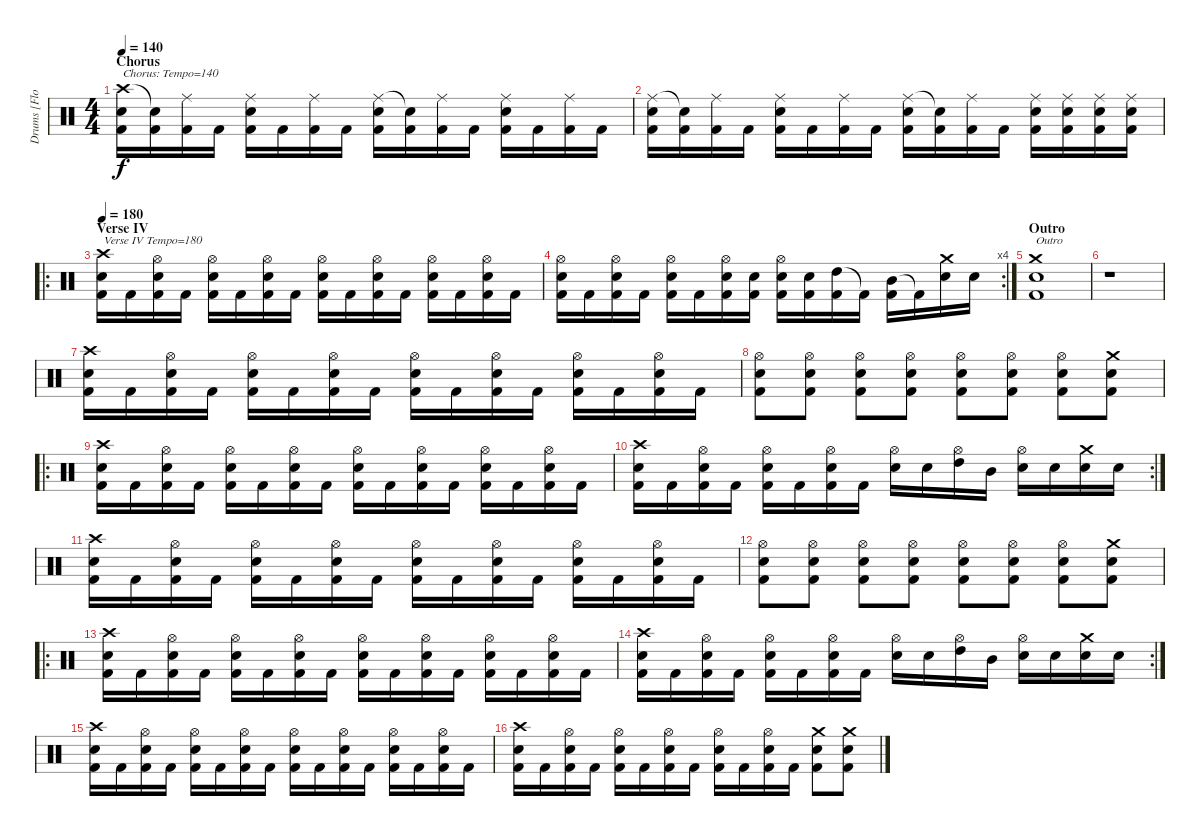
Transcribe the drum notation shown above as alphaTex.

\track ("Drums [Flo Mournier]" "Drums [Flo") {instrument percussion}
\staff {score}
\articulation defaults
\ts (4 4)
\section ("" "Chorus")
\tempo 140
\clef neutral
\ks c
("Crash high (hit)" "Electric Snare (hit)" "Kick (hit) 2").16{txt "Chorus: Tempo=140" dy f} ("Snare (hit)"{t} "Kick (hit) 2").16 ("Ride (middle)" "Kick (hit) 2").16 "Kick (hit) 2".16 ("Ride (middle)" "Electric Snare (hit)" "Kick (hit) 2").16 "Kick (hit) 2".16 ("Ride (middle)" "Kick (hit) 2").16 "Kick (hit) 2".16 ("Ride (middle)" "Electric Snare (hit)" "Kick (hit) 2").16 ("Snare (hit)"{t} "Kick (hit) 2").16 ("Ride (middle)" "Kick (hit) 2").16 "Kick (hit) 2".16 ("Ride (middle)" "Electric Snare (hit)" "Kick (hit) 2").16 "Kick (hit) 2".16 ("Ride (middle)" "Kick (hit) 2").16 "Kick (hit) 2".16 |
("Ride (middle)" "Electric Snare (hit)" "Kick (hit) 2").16 ("Snare (hit)"{t} "Kick (hit) 2").16 ("Ride (middle)" "Kick (hit) 2").16 "Kick (hit) 2".16 ("Ride (middle)" "Electric Snare (hit)" "Kick (hit) 2").16 "Kick (hit) 2".16 ("Ride (middle)" "Kick (hit) 2").16 "Kick (hit) 2".16 ("Ride (middle)" "Electric Snare (hit)" "Kick (hit) 2").16 ("Snare (hit)"{t} "Kick (hit) 2").16 ("Ride (middle)" "Kick (hit) 2").16 "Kick (hit) 2".16 ("Ride (middle)" "Electric Snare (hit)" "Kick (hit) 2").16 ("Ride (middle)" "Electric Snare (hit)" "Kick (hit) 2").16 ("Ride (middle)" "Electric Snare (hit)" "Kick (hit) 2").16 ("Ride (middle)" "Electric Snare (hit)" "Kick (hit) 2").16 |
\ro
\section ("" "Verse IV")
\tempo 180
("Crash high (hit)" "Electric Snare (hit)" "Kick (hit) 2").16{txt "Verse IV Tempo=180"} "Kick (hit) 2".16 ("Hi-Hat (open)" "Electric Snare (hit)" "Kick (hit) 2").16 "Kick (hit) 2".16 ("Hi-Hat (open)" "Electric Snare (hit)" "Kick (hit) 2").16 "Kick (hit) 2".16 ("Hi-Hat (open)" "Electric Snare (hit)" "Kick (hit) 2").16 "Kick (hit) 2".16 ("Hi-Hat (open)" "Electric Snare (hit)" "Kick (hit) 2").16 "Kick (hit) 2".16 ("Hi-Hat (open)" "Electric Snare (hit)" "Kick (hit) 2").16 "Kick (hit) 2".16 ("Hi-Hat (open)" "Electric Snare (hit)" "Kick (hit) 2").16 "Kick (hit) 2".16 ("Hi-Hat (open)" "Electric Snare (hit)" "Kick (hit) 2").16 "Kick (hit) 2".16 |
\rc 4
("Hi-Hat (open)" "Electric Snare (hit)" "Kick (hit) 2").16 "Kick (hit) 2".16 ("Hi-Hat (open)" "Electric Snare (hit)" "Kick (hit) 2").16 "Kick (hit) 2".16 ("Hi-Hat (open)" "Electric Snare (hit)" "Kick (hit) 2").16 "Kick (hit) 2".16 ("Hi-Hat (open)" "Electric Snare (hit)" "Kick (hit) 2").16 ("Electric Snare (hit)" "Kick (hit) 2").16 ("Hi-Hat (open)" "Electric Snare (hit)" "Kick (hit) 2").16 ("Electric Snare (hit)" "Kick (hit) 2").16 ("High Tom (hit)" "Kick (hit) 2").16 "Kick (hit) 2"{t}.16 ("Mid Tom (hit)" "Kick (hit) 2").16 "Kick (hit) 2"{t}.16 ("Crash medium (hit)" "Electric Snare (hit)").16 "Electric Snare (hit)".16 |
\section ("" "Outro")
("Crash medium (hit)" "Electric Snare (hit)" "Kick (hit) 2").1{txt "Outro"} |
r.1 |
("Crash high (hit)" "Electric Snare (hit)" "Kick (hit) 2").16 "Kick (hit) 2".16 ("Hi-Hat (open)" "Electric Snare (hit)" "Kick (hit) 2").16 "Kick (hit) 2".16 ("Hi-Hat (open)" "Electric Snare (hit)" "Kick (hit) 2").16 "Kick (hit) 2".16 ("Hi-Hat (open)" "Electric Snare (hit)" "Kick (hit) 2").16 "Kick (hit) 2".16 ("Hi-Hat (open)" "Electric Snare (hit)" "Kick (hit) 2").16 "Kick (hit) 2".16 ("Hi-Hat (open)" "Electric Snare (hit)" "Kick (hit) 2").16 "Kick (hit) 2".16 ("Hi-Hat (open)" "Electric Snare (hit)" "Kick (hit) 2").16 "Kick (hit) 2".16 ("Hi-Hat (open)" "Electric Snare (hit)" "Kick (hit) 2").16 "Kick (hit) 2".16 |
("Hi-Hat (open)" "Electric Snare (hit)" "Kick (hit) 2").8 ("Hi-Hat (open)" "Electric Snare (hit)" "Kick (hit) 2").8 ("Hi-Hat (open)" "Electric Snare (hit)" "Kick (hit) 2").8 ("Hi-Hat (open)" "Electric Snare (hit)" "Kick (hit) 2").8 ("Hi-Hat (open)" "Electric Snare (hit)" "Kick (hit) 2").8 ("Hi-Hat (open)" "Electric Snare (hit)" "Kick (hit) 2").8 ("Hi-Hat (open)" "Electric Snare (hit)" "Kick (hit) 2").8 ("Crash medium (hit)" "Electric Snare (hit)" "Kick (hit) 2").8 |
\ro
("Crash high (hit)" "Electric Snare (hit)" "Kick (hit) 2").16 "Kick (hit) 2".16 ("Hi-Hat (open)" "Electric Snare (hit)" "Kick (hit) 2").16 "Kick (hit) 2".16 ("Hi-Hat (open)" "Electric Snare (hit)" "Kick (hit) 2").16 "Kick (hit) 2".16 ("Hi-Hat (open)" "Electric Snare (hit)" "Kick (hit) 2").16 "Kick (hit) 2".16 ("Hi-Hat (open)" "Electric Snare (hit)" "Kick (hit) 2").16 "Kick (hit) 2".16 ("Hi-Hat (open)" "Electric Snare (hit)" "Kick (hit) 2").16 "Kick (hit) 2".16 ("Hi-Hat (open)" "Electric Snare (hit)" "Kick (hit) 2").16 "Kick (hit) 2".16 ("Hi-Hat (open)" "Electric Snare (hit)" "Kick (hit) 2").16 "Kick (hit) 2".16 |
\rc 2
("Crash high (hit)" "Electric Snare (hit)" "Kick (hit) 2").16 "Kick (hit) 2".16 ("Hi-Hat (open)" "Electric Snare (hit)" "Kick (hit) 2").16 "Kick (hit) 2".16 ("Hi-Hat (open)" "Electric Snare (hit)" "Kick (hit) 2").16 "Kick (hit) 2".16 ("Hi-Hat (open)" "Electric Snare (hit)" "Kick (hit) 2").16 "Kick (hit) 2".16 ("Hi-Hat (open)" "Electric Snare (hit)").16 "Electric Snare (hit)".16 ("Hi-Hat (open)" "High Tom (hit)").16 "Mid Tom (hit)".16 ("Hi-Hat (open)" "Electric Snare (hit)").16 "Electric Snare (hit)".16 ("Crash medium (hit)" "Electric Snare (hit)").16 "Electric Snare (hit)".16 |
("Crash high (hit)" "Electric Snare (hit)" "Kick (hit) 2").16 "Kick (hit) 2".16 ("Hi-Hat (open)" "Electric Snare (hit)" "Kick (hit) 2").16 "Kick (hit) 2".16 ("Hi-Hat (open)" "Electric Snare (hit)" "Kick (hit) 2").16 "Kick (hit) 2".16 ("Hi-Hat (open)" "Electric Snare (hit)" "Kick (hit) 2").16 "Kick (hit) 2".16 ("Hi-Hat (open)" "Electric Snare (hit)" "Kick (hit) 2").16 "Kick (hit) 2".16 ("Hi-Hat (open)" "Electric Snare (hit)" "Kick (hit) 2").16 "Kick (hit) 2".16 ("Hi-Hat (open)" "Electric Snare (hit)" "Kick (hit) 2").16 "Kick (hit) 2".16 ("Hi-Hat (open)" "Electric Snare (hit)" "Kick (hit) 2").16 "Kick (hit) 2".16 |
("Hi-Hat (open)" "Electric Snare (hit)" "Kick (hit) 2").8 ("Hi-Hat (open)" "Electric Snare (hit)" "Kick (hit) 2").8 ("Hi-Hat (open)" "Electric Snare (hit)" "Kick (hit) 2").8 ("Hi-Hat (open)" "Electric Snare (hit)" "Kick (hit) 2").8 ("Hi-Hat (open)" "Electric Snare (hit)" "Kick (hit) 2").8 ("Hi-Hat (open)" "Electric Snare (hit)" "Kick (hit) 2").8 ("Hi-Hat (open)" "Electric Snare (hit)" "Kick (hit) 2").8 ("Crash medium (hit)" "Electric Snare (hit)" "Kick (hit) 2").8 |
\ro
("Crash high (hit)" "Electric Snare (hit)" "Kick (hit) 2").16 "Kick (hit) 2".16 ("Hi-Hat (open)" "Electric Snare (hit)" "Kick (hit) 2").16 "Kick (hit) 2".16 ("Hi-Hat (open)" "Electric Snare (hit)" "Kick (hit) 2").16 "Kick (hit) 2".16 ("Hi-Hat (open)" "Electric Snare (hit)" "Kick (hit) 2").16 "Kick (hit) 2".16 ("Hi-Hat (open)" "Electric Snare (hit)" "Kick (hit) 2").16 "Kick (hit) 2".16 ("Hi-Hat (open)" "Electric Snare (hit)" "Kick (hit) 2").16 "Kick (hit) 2".16 ("Hi-Hat (open)" "Electric Snare (hit)" "Kick (hit) 2").16 "Kick (hit) 2".16 ("Hi-Hat (open)" "Electric Snare (hit)" "Kick (hit) 2").16 "Kick (hit) 2".16 |
\rc 2
("Crash high (hit)" "Electric Snare (hit)" "Kick (hit) 2").16 "Kick (hit) 2".16 ("Hi-Hat (open)" "Electric Snare (hit)" "Kick (hit) 2").16 "Kick (hit) 2".16 ("Hi-Hat (open)" "Electric Snare (hit)" "Kick (hit) 2").16 "Kick (hit) 2".16 ("Hi-Hat (open)" "Electric Snare (hit)" "Kick (hit) 2").16 "Kick (hit) 2".16 ("Hi-Hat (open)" "Electric Snare (hit)").16 "Electric Snare (hit)".16 ("Hi-Hat (open)" "High Tom (hit)").16 "Mid Tom (hit)".16 ("Hi-Hat (open)" "Electric Snare (hit)").16 "Electric Snare (hit)".16 ("Crash medium (hit)" "Electric Snare (hit)").16 "Electric Snare (hit)".16 |
("Crash high (hit)" "Electric Snare (hit)" "Kick (hit) 2").16 "Kick (hit) 2".16 ("Hi-Hat (open)" "Electric Snare (hit)" "Kick (hit) 2").16 "Kick (hit) 2".16 ("Hi-Hat (open)" "Electric Snare (hit)" "Kick (hit) 2").16 "Kick (hit) 2".16 ("Hi-Hat (open)" "Electric Snare (hit)" "Kick (hit) 2").16 "Kick (hit) 2".16 ("Hi-Hat (open)" "Electric Snare (hit)" "Kick (hit) 2").16 "Kick (hit) 2".16 ("Hi-Hat (open)" "Electric Snare (hit)" "Kick (hit) 2").16 "Kick (hit) 2".16 ("Hi-Hat (open)" "Electric Snare (hit)" "Kick (hit) 2").16 "Kick (hit) 2".16 ("Hi-Hat (open)" "Electric Snare (hit)" "Kick (hit) 2").16 "Kick (hit) 2".16 |
("Crash high (hit)" "Electric Snare (hit)" "Kick (hit) 2").16 "Kick (hit) 2".16 ("Hi-Hat (open)" "Electric Snare (hit)" "Kick (hit) 2").16 "Kick (hit) 2".16 ("Hi-Hat (open)" "Electric Snare (hit)" "Kick (hit) 2").16 "Kick (hit) 2".16 ("Hi-Hat (open)" "Electric Snare (hit)" "Kick (hit) 2").16 "Kick (hit) 2".16 ("Hi-Hat (open)" "Electric Snare (hit)" "Kick (hit) 2").16 "Kick (hit) 2".16 ("Hi-Hat (open)" "Electric Snare (hit)" "Kick (hit) 2").16 "Kick (hit) 2".16 ("Crash medium (hit)" "Electric Snare (hit)" "Kick (hit) 2").8 ("Crash medium (hit)" "Electric Snare (hit)" "Kick (hit) 2").8
